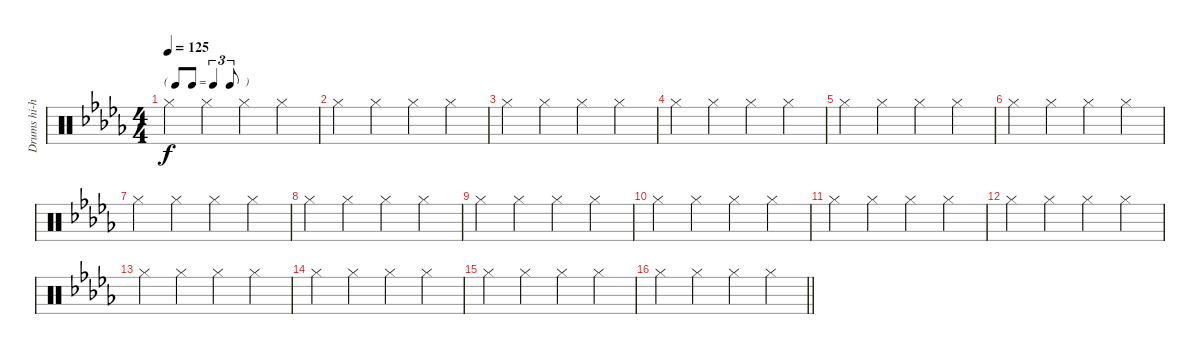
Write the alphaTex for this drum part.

\track ("Drums hi-hat" "Drums hi-h") {instrument percussion}
\staff {score}
\articulation defaults
\ts (4 4)
\tf triplet8th
\tempo 125
\clef neutral
\ks db "Hi-Hat (closed)".4{dy f} "Hi-Hat (closed)".4 "Hi-Hat (closed)".4 "Hi-Hat (closed)".4
|
"Hi-Hat (closed)".4 "Hi-Hat (closed)".4 "Hi-Hat (closed)".4 "Hi-Hat (closed)".4 |
"Hi-Hat (closed)".4 "Hi-Hat (closed)".4 "Hi-Hat (closed)".4 "Hi-Hat (closed)".4 |
"Hi-Hat (closed)".4 "Hi-Hat (closed)".4 "Hi-Hat (closed)".4 "Hi-Hat (closed)".4 |
"Hi-Hat (closed)".4 "Hi-Hat (closed)".4 "Hi-Hat (closed)".4 "Hi-Hat (closed)".4 |
"Hi-Hat (closed)".4 "Hi-Hat (closed)".4 "Hi-Hat (closed)".4 "Hi-Hat (closed)".4 |
"Hi-Hat (closed)".4 "Hi-Hat (closed)".4 "Hi-Hat (closed)".4 "Hi-Hat (closed)".4 |
"Hi-Hat (closed)".4 "Hi-Hat (closed)".4 "Hi-Hat (closed)".4 "Hi-Hat (closed)".4 |
"Hi-Hat (closed)".4 "Hi-Hat (closed)".4 "Hi-Hat (closed)".4 "Hi-Hat (closed)".4 |
"Hi-Hat (closed)".4 "Hi-Hat (closed)".4 "Hi-Hat (closed)".4 "Hi-Hat (closed)".4 |
"Hi-Hat (closed)".4 "Hi-Hat (closed)".4 "Hi-Hat (closed)".4 "Hi-Hat (closed)".4 |
"Hi-Hat (closed)".4 "Hi-Hat (closed)".4 "Hi-Hat (closed)".4 "Hi-Hat (closed)".4 |
"Hi-Hat (closed)".4 "Hi-Hat (closed)".4 "Hi-Hat (closed)".4 "Hi-Hat (closed)".4 |
"Hi-Hat (closed)".4 "Hi-Hat (closed)".4 "Hi-Hat (closed)".4 "Hi-Hat (closed)".4 |
"Hi-Hat (closed)".4 "Hi-Hat (closed)".4 "Hi-Hat (closed)".4 "Hi-Hat (closed)".4 |
\barLineRight lightlight "Hi-Hat (closed)".4 "Hi-Hat (closed)".4 "Hi-Hat (closed)".4 "Hi-Hat (closed)".4
